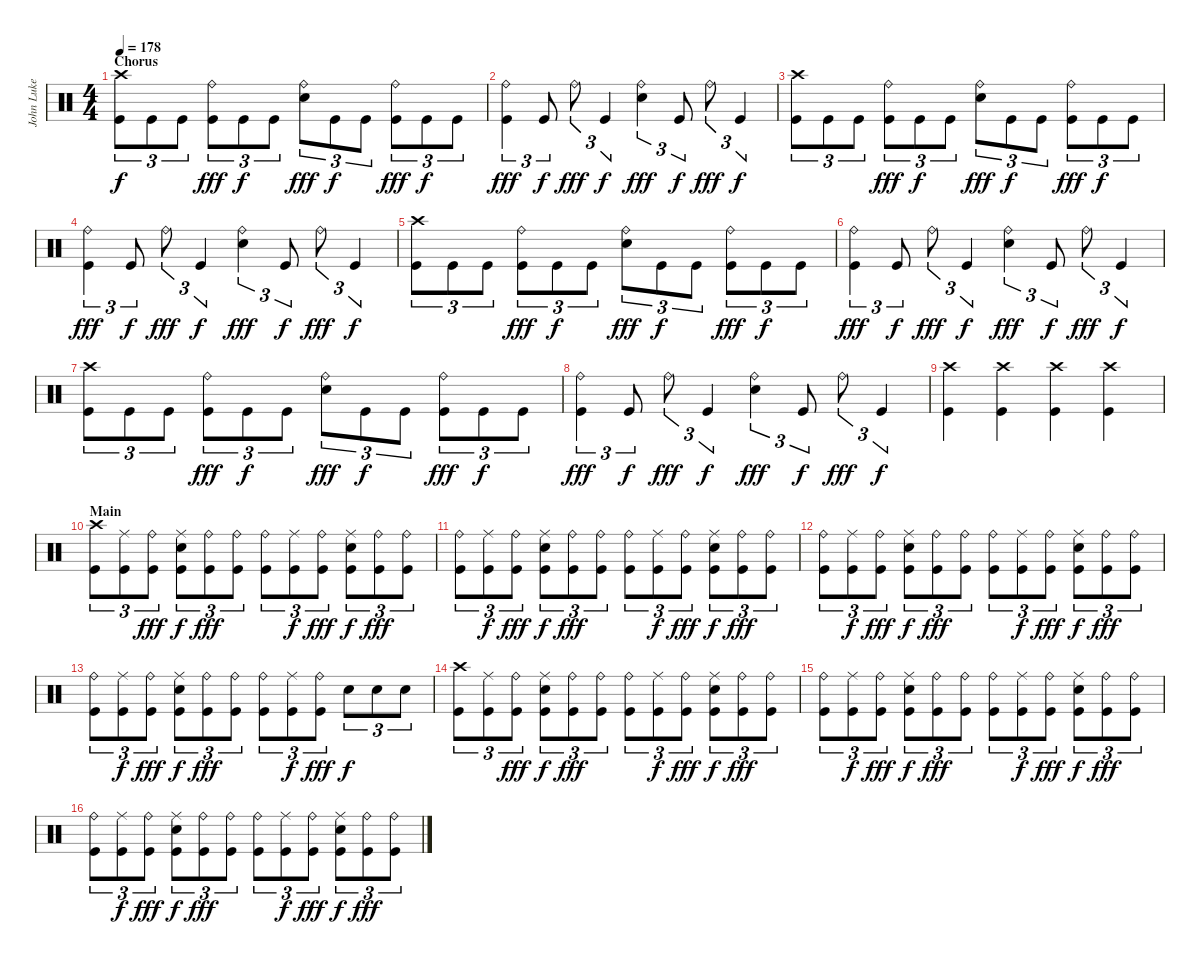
\track ("John Luke (Drums)" "John Luke ") {instrument percussion}
\staff {score}
\articulation defaults
\ts (4 4)
\section ("" "Chorus")
\tempo 178
\clef neutral
\ks c
("Crash high (hit)" "Kick (hit)").8{tu (3 2) dy f} "Kick (hit)".8{tu (3 2)} "Kick (hit)".8{tu (3 2)} ("Ride (bell)" "Kick (hit)").8{tu (3 2) dy fff} "Kick (hit)".8{tu (3 2) dy f} "Kick (hit)".8{tu (3 2)} ("Ride (bell)" "Electric Snare (hit)").8{tu (3 2) dy fff} "Kick (hit)".8{tu (3 2) dy f} "Kick (hit)".8{tu (3 2)} ("Ride (bell)" "Kick (hit)").8{tu (3 2) dy fff} "Kick (hit)".8{tu (3 2) dy f} "Kick (hit)".8{tu (3 2)} |
("Ride (bell)" "Kick (hit)").4{tu (3 2) dy fff} "Kick (hit)".8{tu (3 2) dy f} "Ride (bell)".8{tu (3 2) dy fff} "Kick (hit)".4{tu (3 2) dy f} ("Ride (bell)" "Electric Snare (hit)").4{tu (3 2) dy fff} "Kick (hit)".8{tu (3 2) dy f} "Ride (bell)".8{tu (3 2) dy fff} "Kick (hit)".4{tu (3 2) dy f} |
("Crash high (hit)" "Kick (hit)").8{tu (3 2)} "Kick (hit)".8{tu (3 2)} "Kick (hit)".8{tu (3 2)} ("Ride (bell)" "Kick (hit)").8{tu (3 2) dy fff} "Kick (hit)".8{tu (3 2) dy f} "Kick (hit)".8{tu (3 2)} ("Ride (bell)" "Electric Snare (hit)").8{tu (3 2) dy fff} "Kick (hit)".8{tu (3 2) dy f} "Kick (hit)".8{tu (3 2)} ("Ride (bell)" "Kick (hit)").8{tu (3 2) dy fff} "Kick (hit)".8{tu (3 2) dy f} "Kick (hit)".8{tu (3 2)} |
("Ride (bell)" "Kick (hit)").4{tu (3 2) dy fff} "Kick (hit)".8{tu (3 2) dy f} "Ride (bell)".8{tu (3 2) dy fff} "Kick (hit)".4{tu (3 2) dy f} ("Ride (bell)" "Electric Snare (hit)").4{tu (3 2) dy fff} "Kick (hit)".8{tu (3 2) dy f} "Ride (bell)".8{tu (3 2) dy fff} "Kick (hit)".4{tu (3 2) dy f} |
("Crash high (hit)" "Kick (hit)").8{tu (3 2)} "Kick (hit)".8{tu (3 2)} "Kick (hit)".8{tu (3 2)} ("Ride (bell)" "Kick (hit)").8{tu (3 2) dy fff} "Kick (hit)".8{tu (3 2) dy f} "Kick (hit)".8{tu (3 2)} ("Ride (bell)" "Electric Snare (hit)").8{tu (3 2) dy fff} "Kick (hit)".8{tu (3 2) dy f} "Kick (hit)".8{tu (3 2)} ("Ride (bell)" "Kick (hit)").8{tu (3 2) dy fff} "Kick (hit)".8{tu (3 2) dy f} "Kick (hit)".8{tu (3 2)} |
("Ride (bell)" "Kick (hit)").4{tu (3 2) dy fff} "Kick (hit)".8{tu (3 2) dy f} "Ride (bell)".8{tu (3 2) dy fff} "Kick (hit)".4{tu (3 2) dy f} ("Ride (bell)" "Electric Snare (hit)").4{tu (3 2) dy fff} "Kick (hit)".8{tu (3 2) dy f} "Ride (bell)".8{tu (3 2) dy fff} "Kick (hit)".4{tu (3 2) dy f} |
("Crash high (hit)" "Kick (hit)").8{tu (3 2)} "Kick (hit)".8{tu (3 2)} "Kick (hit)".8{tu (3 2)} ("Ride (bell)" "Kick (hit)").8{tu (3 2) dy fff} "Kick (hit)".8{tu (3 2) dy f} "Kick (hit)".8{tu (3 2)} ("Ride (bell)" "Electric Snare (hit)").8{tu (3 2) dy fff} "Kick (hit)".8{tu (3 2) dy f} "Kick (hit)".8{tu (3 2)} ("Ride (bell)" "Kick (hit)").8{tu (3 2) dy fff} "Kick (hit)".8{tu (3 2) dy f} "Kick (hit)".8{tu (3 2)} |
("Ride (bell)" "Kick (hit)").4{tu (3 2) dy fff} "Kick (hit)".8{tu (3 2) dy f} "Ride (bell)".8{tu (3 2) dy fff} "Kick (hit)".4{tu (3 2) dy f} ("Ride (bell)" "Electric Snare (hit)").4{tu (3 2) dy fff} "Kick (hit)".8{tu (3 2) dy f} "Ride (bell)".8{tu (3 2) dy fff} "Kick (hit)".4{tu (3 2) dy f} |
("Crash high (hit)" "Kick (hit)").4 ("Crash high (hit)" "Kick (hit)").4 ("Crash high (hit)" "Kick (hit)").4 ("Crash high (hit)" "Kick (hit)").4 |
\section ("" "Main")
("Crash high (hit)" "Kick (hit)").8{tu (3 2)} ("Ride (middle)" "Kick (hit)").8{tu (3 2)} ("Ride (bell)" "Kick (hit)").8{tu (3 2) dy fff} ("Ride (middle)" "Electric Snare (hit)" "Kick (hit)").8{tu (3 2) dy f} ("Ride (bell)" "Kick (hit)").8{tu (3 2) dy fff} ("Ride (bell)" "Kick (hit)").8{tu (3 2)} ("Ride (bell)" "Kick (hit)").8{tu (3 2)} ("Ride (middle)" "Kick (hit)").8{tu (3 2) dy f} ("Ride (bell)" "Kick (hit)").8{tu (3 2) dy fff} ("Ride (middle)" "Electric Snare (hit)" "Kick (hit)").8{tu (3 2) dy f} ("Ride (bell)" "Kick (hit)").8{tu (3 2) dy fff} ("Ride (bell)" "Kick (hit)").8{tu (3 2)} |
("Ride (bell)" "Kick (hit)").8{tu (3 2)} ("Ride (middle)" "Kick (hit)").8{tu (3 2) dy f} ("Ride (bell)" "Kick (hit)").8{tu (3 2) dy fff} ("Ride (middle)" "Electric Snare (hit)" "Kick (hit)").8{tu (3 2) dy f} ("Ride (bell)" "Kick (hit)").8{tu (3 2) dy fff} ("Ride (bell)" "Kick (hit)").8{tu (3 2)} ("Ride (bell)" "Kick (hit)").8{tu (3 2)} ("Ride (middle)" "Kick (hit)").8{tu (3 2) dy f} ("Ride (bell)" "Kick (hit)").8{tu (3 2) dy fff} ("Ride (middle)" "Electric Snare (hit)" "Kick (hit)").8{tu (3 2) dy f} ("Ride (bell)" "Kick (hit)").8{tu (3 2) dy fff} ("Ride (bell)" "Kick (hit)").8{tu (3 2)} |
("Ride (bell)" "Kick (hit)").8{tu (3 2)} ("Ride (middle)" "Kick (hit)").8{tu (3 2) dy f} ("Ride (bell)" "Kick (hit)").8{tu (3 2) dy fff} ("Ride (middle)" "Electric Snare (hit)" "Kick (hit)").8{tu (3 2) dy f} ("Ride (bell)" "Kick (hit)").8{tu (3 2) dy fff} ("Ride (bell)" "Kick (hit)").8{tu (3 2)} ("Ride (bell)" "Kick (hit)").8{tu (3 2)} ("Ride (middle)" "Kick (hit)").8{tu (3 2) dy f} ("Ride (bell)" "Kick (hit)").8{tu (3 2) dy fff} ("Ride (middle)" "Electric Snare (hit)" "Kick (hit)").8{tu (3 2) dy f} ("Ride (bell)" "Kick (hit)").8{tu (3 2) dy fff} ("Ride (bell)" "Kick (hit)").8{tu (3 2)} |
("Ride (bell)" "Kick (hit)").8{tu (3 2)} ("Ride (middle)" "Kick (hit)").8{tu (3 2) dy f} ("Ride (bell)" "Kick (hit)").8{tu (3 2) dy fff} ("Ride (middle)" "Electric Snare (hit)" "Kick (hit)").8{tu (3 2) dy f} ("Ride (bell)" "Kick (hit)").8{tu (3 2) dy fff} ("Ride (bell)" "Kick (hit)").8{tu (3 2)} ("Ride (bell)" "Kick (hit)").8{tu (3 2)} ("Ride (middle)" "Kick (hit)").8{tu (3 2) dy f} ("Ride (bell)" "Kick (hit)").8{tu (3 2) dy fff} "Electric Snare (hit)".8{tu (3 2) dy f} "Electric Snare (hit)".8{tu (3 2)} "Electric Snare (hit)".8{tu (3 2)} |
("Crash high (hit)" "Kick (hit)").8{tu (3 2)} ("Ride (middle)" "Kick (hit)").8{tu (3 2)} ("Ride (bell)" "Kick (hit)").8{tu (3 2) dy fff} ("Ride (middle)" "Electric Snare (hit)" "Kick (hit)").8{tu (3 2) dy f} ("Ride (bell)" "Kick (hit)").8{tu (3 2) dy fff} ("Ride (bell)" "Kick (hit)").8{tu (3 2)} ("Ride (bell)" "Kick (hit)").8{tu (3 2)} ("Ride (middle)" "Kick (hit)").8{tu (3 2) dy f} ("Ride (bell)" "Kick (hit)").8{tu (3 2) dy fff} ("Ride (middle)" "Electric Snare (hit)" "Kick (hit)").8{tu (3 2) dy f} ("Ride (bell)" "Kick (hit)").8{tu (3 2) dy fff} ("Ride (bell)" "Kick (hit)").8{tu (3 2)} |
("Ride (bell)" "Kick (hit)").8{tu (3 2)} ("Ride (middle)" "Kick (hit)").8{tu (3 2) dy f} ("Ride (bell)" "Kick (hit)").8{tu (3 2) dy fff} ("Ride (middle)" "Electric Snare (hit)" "Kick (hit)").8{tu (3 2) dy f} ("Ride (bell)" "Kick (hit)").8{tu (3 2) dy fff} ("Ride (bell)" "Kick (hit)").8{tu (3 2)} ("Ride (bell)" "Kick (hit)").8{tu (3 2)} ("Ride (middle)" "Kick (hit)").8{tu (3 2) dy f} ("Ride (bell)" "Kick (hit)").8{tu (3 2) dy fff} ("Ride (middle)" "Electric Snare (hit)" "Kick (hit)").8{tu (3 2) dy f} ("Ride (bell)" "Kick (hit)").8{tu (3 2) dy fff} ("Ride (bell)" "Kick (hit)").8{tu (3 2)} |
("Ride (bell)" "Kick (hit)").8{tu (3 2)} ("Ride (middle)" "Kick (hit)").8{tu (3 2) dy f} ("Ride (bell)" "Kick (hit)").8{tu (3 2) dy fff} ("Ride (middle)" "Electric Snare (hit)" "Kick (hit)").8{tu (3 2) dy f} ("Ride (bell)" "Kick (hit)").8{tu (3 2) dy fff} ("Ride (bell)" "Kick (hit)").8{tu (3 2)} ("Ride (bell)" "Kick (hit)").8{tu (3 2)} ("Ride (middle)" "Kick (hit)").8{tu (3 2) dy f} ("Ride (bell)" "Kick (hit)").8{tu (3 2) dy fff} ("Ride (middle)" "Electric Snare (hit)" "Kick (hit)").8{tu (3 2) dy f} ("Ride (bell)" "Kick (hit)").8{tu (3 2) dy fff} ("Ride (bell)" "Kick (hit)").8{tu (3 2)}
